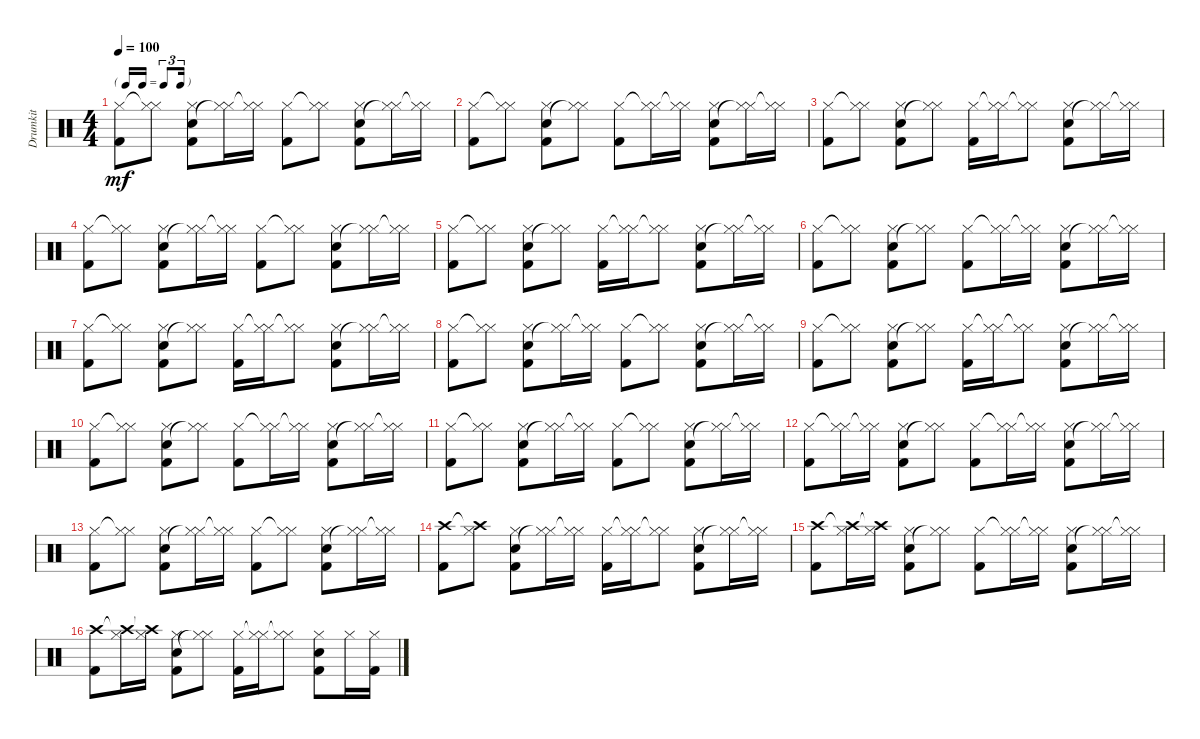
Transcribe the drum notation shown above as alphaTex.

\track ("Drumkit" "Drumkit") {instrument percussion}
\staff {score}
\articulation defaults
\ts (4 4)
\tf triplet16th
\tempo 100
\clef neutral
\ks c
("Hi-Hat (closed)" "Kick (hit) 2").8{dy mf} ("Hi-Hat (closed)"{t} "Hi-Hat (closed)").8 ("Snare (hit) 2" "Hi-Hat (closed)" "Kick (hit) 2").8 ("Hi-Hat (closed)"{t} "Hi-Hat (closed)").16 ("Hi-Hat (closed)"{t} "Hi-Hat (closed)").16 ("Hi-Hat (closed)" "Kick (hit) 2").8 ("Hi-Hat (closed)"{t} "Hi-Hat (closed)").8 ("Snare (hit) 2" "Hi-Hat (closed)" "Kick (hit) 2").8 ("Hi-Hat (closed)"{t} "Hi-Hat (closed)").16 ("Hi-Hat (closed)"{t} "Hi-Hat (closed)").16 |
("Hi-Hat (closed)" "Kick (hit) 2").8 ("Hi-Hat (closed)"{t} "Hi-Hat (closed)").8 ("Snare (hit) 2" "Hi-Hat (closed)" "Kick (hit) 2").8 ("Hi-Hat (closed)"{t} "Hi-Hat (closed)").8 ("Hi-Hat (closed)" "Kick (hit) 2").8 ("Hi-Hat (closed)"{t} "Hi-Hat (closed)").16 ("Hi-Hat (closed)"{t} "Hi-Hat (closed)").16 ("Snare (hit) 2" "Hi-Hat (closed)" "Kick (hit) 2").8 ("Hi-Hat (closed)"{t} "Hi-Hat (closed)").16 ("Hi-Hat (closed)"{t} "Hi-Hat (closed)").16 |
("Hi-Hat (closed)" "Kick (hit) 2").8 ("Hi-Hat (closed)"{t} "Hi-Hat (closed)").8 ("Snare (hit) 2" "Hi-Hat (closed)" "Kick (hit) 2").8 ("Hi-Hat (closed)"{t} "Hi-Hat (closed)").8 ("Hi-Hat (closed)" "Kick (hit) 2").16 ("Hi-Hat (closed)"{t} "Hi-Hat (closed)").16 ("Hi-Hat (closed)"{t} "Hi-Hat (closed)").8 ("Snare (hit) 2" "Hi-Hat (closed)" "Kick (hit) 2").8 ("Hi-Hat (closed)"{t} "Hi-Hat (closed)").16 ("Hi-Hat (closed)"{t} "Hi-Hat (closed)").16 |
("Hi-Hat (closed)" "Kick (hit) 2").8 ("Hi-Hat (closed)"{t} "Hi-Hat (closed)").8 ("Snare (hit) 2" "Hi-Hat (closed)" "Kick (hit) 2").8 ("Hi-Hat (closed)"{t} "Hi-Hat (closed)").16 ("Hi-Hat (closed)"{t} "Hi-Hat (closed)").16 ("Hi-Hat (closed)" "Kick (hit) 2").8 ("Hi-Hat (closed)"{t} "Hi-Hat (closed)").8 ("Snare (hit) 2" "Hi-Hat (closed)" "Kick (hit) 2").8 ("Hi-Hat (closed)"{t} "Hi-Hat (closed)").16 ("Hi-Hat (closed)"{t} "Hi-Hat (closed)").16 |
("Hi-Hat (closed)" "Kick (hit) 2").8 ("Hi-Hat (closed)"{t} "Hi-Hat (closed)").8 ("Snare (hit) 2" "Hi-Hat (closed)" "Kick (hit) 2").8 ("Hi-Hat (closed)"{t} "Hi-Hat (closed)").8 ("Hi-Hat (closed)" "Kick (hit) 2").16 ("Hi-Hat (closed)"{t} "Hi-Hat (closed)").16 ("Hi-Hat (closed)"{t} "Hi-Hat (closed)").8 ("Snare (hit) 2" "Hi-Hat (closed)" "Kick (hit) 2").8 ("Hi-Hat (closed)"{t} "Hi-Hat (closed)").16 ("Hi-Hat (closed)"{t} "Hi-Hat (closed)").16 |
("Hi-Hat (closed)" "Kick (hit) 2").8 ("Hi-Hat (closed)"{t} "Hi-Hat (closed)").8 ("Snare (hit) 2" "Hi-Hat (closed)" "Kick (hit) 2").8 ("Hi-Hat (closed)"{t} "Hi-Hat (closed)").8 ("Hi-Hat (closed)" "Kick (hit) 2").8 ("Hi-Hat (closed)"{t} "Hi-Hat (closed)").16 ("Hi-Hat (closed)"{t} "Hi-Hat (closed)").16 ("Snare (hit) 2" "Hi-Hat (closed)" "Kick (hit) 2").8 ("Hi-Hat (closed)"{t} "Hi-Hat (closed)").16 ("Hi-Hat (closed)"{t} "Hi-Hat (closed)").16 |
("Hi-Hat (closed)" "Kick (hit) 2").8 ("Hi-Hat (closed)"{t} "Hi-Hat (closed)").8 ("Snare (hit) 2" "Hi-Hat (closed)" "Kick (hit) 2").8 ("Hi-Hat (closed)"{t} "Hi-Hat (closed)").8 ("Hi-Hat (closed)" "Kick (hit) 2").16 ("Hi-Hat (closed)"{t} "Hi-Hat (closed)").16 ("Hi-Hat (closed)"{t} "Hi-Hat (closed)").8 ("Snare (hit) 2" "Hi-Hat (closed)" "Kick (hit) 2").8 ("Hi-Hat (closed)"{t} "Hi-Hat (closed)").16 ("Hi-Hat (closed)"{t} "Hi-Hat (closed)").16 |
("Hi-Hat (closed)" "Kick (hit) 2").8 ("Hi-Hat (closed)"{t} "Hi-Hat (closed)").8 ("Snare (hit) 2" "Hi-Hat (closed)" "Kick (hit) 2").8 ("Hi-Hat (closed)"{t} "Hi-Hat (closed)").16 ("Hi-Hat (closed)"{t} "Hi-Hat (closed)").16 ("Hi-Hat (closed)" "Kick (hit) 2").8 ("Hi-Hat (closed)"{t} "Hi-Hat (closed)").8 ("Snare (hit) 2" "Hi-Hat (closed)" "Kick (hit) 2").8 ("Hi-Hat (closed)"{t} "Hi-Hat (closed)").16 ("Hi-Hat (closed)"{t} "Hi-Hat (closed)").16 |
("Hi-Hat (closed)" "Kick (hit) 2").8 ("Hi-Hat (closed)"{t} "Hi-Hat (closed)").8 ("Snare (hit) 2" "Hi-Hat (closed)" "Kick (hit) 2").8 ("Hi-Hat (closed)"{t} "Hi-Hat (closed)").8 ("Hi-Hat (closed)" "Kick (hit) 2").16 ("Hi-Hat (closed)"{t} "Hi-Hat (closed)").16 ("Hi-Hat (closed)"{t} "Hi-Hat (closed)").8 ("Snare (hit) 2" "Hi-Hat (closed)" "Kick (hit) 2").8 ("Hi-Hat (closed)"{t} "Hi-Hat (closed)").16 ("Hi-Hat (closed)"{t} "Hi-Hat (closed)").16 |
("Hi-Hat (closed)" "Kick (hit) 2").8 ("Hi-Hat (closed)"{t} "Hi-Hat (closed)").8 ("Snare (hit) 2" "Hi-Hat (closed)" "Kick (hit) 2").8 ("Hi-Hat (closed)"{t} "Hi-Hat (closed)").8 ("Hi-Hat (closed)" "Kick (hit) 2").8 ("Hi-Hat (closed)"{t} "Hi-Hat (closed)").16 ("Hi-Hat (closed)"{t} "Hi-Hat (closed)").16 ("Snare (hit) 2" "Hi-Hat (closed)" "Kick (hit) 2").8 ("Hi-Hat (closed)"{t} "Hi-Hat (closed)").16 ("Hi-Hat (closed)"{t} "Hi-Hat (closed)").16 |
("Hi-Hat (closed)" "Kick (hit) 2").8 ("Hi-Hat (closed)"{t} "Hi-Hat (closed)").8 ("Snare (hit) 2" "Hi-Hat (closed)" "Kick (hit) 2").8 ("Hi-Hat (closed)"{t} "Hi-Hat (closed)").16 ("Hi-Hat (closed)"{t} "Hi-Hat (closed)").16 ("Hi-Hat (closed)" "Kick (hit) 2").8 ("Hi-Hat (closed)"{t} "Hi-Hat (closed)").8 ("Snare (hit) 2" "Hi-Hat (closed)" "Kick (hit) 2").8 ("Hi-Hat (closed)"{t} "Hi-Hat (closed)").16 ("Hi-Hat (closed)"{t} "Hi-Hat (closed)").16 |
("Hi-Hat (closed)" "Kick (hit) 2").8 ("Hi-Hat (closed)"{t} "Hi-Hat (closed)").16 ("Hi-Hat (closed)"{t} "Hi-Hat (closed)").16 ("Snare (hit) 2" "Hi-Hat (closed)" "Kick (hit) 2").8 ("Hi-Hat (closed)"{t} "Hi-Hat (closed)").8 ("Hi-Hat (closed)" "Kick (hit) 2").8 ("Hi-Hat (closed)"{t} "Hi-Hat (closed)").16 ("Hi-Hat (closed)"{t} "Hi-Hat (closed)").16 ("Snare (hit) 2" "Hi-Hat (closed)" "Kick (hit) 2").8 ("Hi-Hat (closed)"{t} "Hi-Hat (closed)").16 ("Hi-Hat (closed)"{t} "Hi-Hat (closed)").16 |
("Hi-Hat (closed)" "Kick (hit) 2").8 ("Hi-Hat (closed)"{t} "Hi-Hat (closed)").8 ("Snare (hit) 2" "Hi-Hat (closed)" "Kick (hit) 2").8 ("Hi-Hat (closed)"{t} "Hi-Hat (closed)").16 ("Hi-Hat (closed)"{t} "Hi-Hat (closed)").16 ("Hi-Hat (closed)" "Kick (hit) 2").8 ("Hi-Hat (closed)"{t} "Hi-Hat (closed)").8 ("Snare (hit) 2" "Hi-Hat (closed)" "Kick (hit) 2").8 ("Hi-Hat (closed)"{t} "Hi-Hat (closed)").16 ("Hi-Hat (closed)"{t} "Hi-Hat (closed)").16 |
("Crash high (hit)" "Kick (hit) 2").8 ("Crash high (hit)"{t} "Hi-Hat (closed)").8 ("Snare (hit) 2" "Hi-Hat (closed)" "Kick (hit) 2").8 ("Hi-Hat (closed)"{t} "Hi-Hat (closed)").16 ("Hi-Hat (closed)"{t} "Hi-Hat (closed)").16 ("Hi-Hat (closed)" "Kick (hit) 2").16 ("Hi-Hat (closed)"{t} "Hi-Hat (closed)").16 ("Hi-Hat (closed)"{t} "Hi-Hat (closed)").8 ("Snare (hit) 2" "Hi-Hat (closed)" "Kick (hit) 2").8 ("Hi-Hat (closed)"{t} "Hi-Hat (closed)").16 ("Hi-Hat (closed)"{t} "Hi-Hat (closed)").16 |
("Crash high (hit)" "Kick (hit) 2").8 ("Crash high (hit)"{t} "Hi-Hat (closed)").16 ("Crash high (hit)"{t} "Hi-Hat (closed)").16 ("Snare (hit) 2" "Hi-Hat (closed)" "Kick (hit) 2").8 ("Hi-Hat (closed)"{t} "Hi-Hat (closed)").8 ("Hi-Hat (closed)" "Kick (hit) 2").8 ("Hi-Hat (closed)"{t} "Hi-Hat (closed)").16 ("Hi-Hat (closed)"{t} "Hi-Hat (closed)").16 ("Snare (hit) 2" "Hi-Hat (closed)" "Kick (hit) 2").8 ("Hi-Hat (closed)"{t} "Hi-Hat (closed)").16 ("Hi-Hat (closed)"{t} "Hi-Hat (closed)").16 |
("Crash high (hit)" "Kick (hit) 2").8 ("Crash high (hit)"{t} "Hi-Hat (closed)").16 ("Crash high (hit)"{t} "Hi-Hat (closed)").16 ("Snare (hit) 2" "Hi-Hat (closed)" "Kick (hit) 2").8 ("Hi-Hat (closed)"{t} "Hi-Hat (closed)").8 ("Hi-Hat (closed)" "Kick (hit) 2").16 ("Hi-Hat (closed)"{t} "Hi-Hat (closed)").16 ("Hi-Hat (closed)"{t} "Hi-Hat (closed)").8 ("Snare (hit) 2" "Hi-Hat (closed)" "Kick (hit) 2").8 "Hi-Hat (closed)".16 ("Kick (hit) 2" "Hi-Hat (closed)").16
